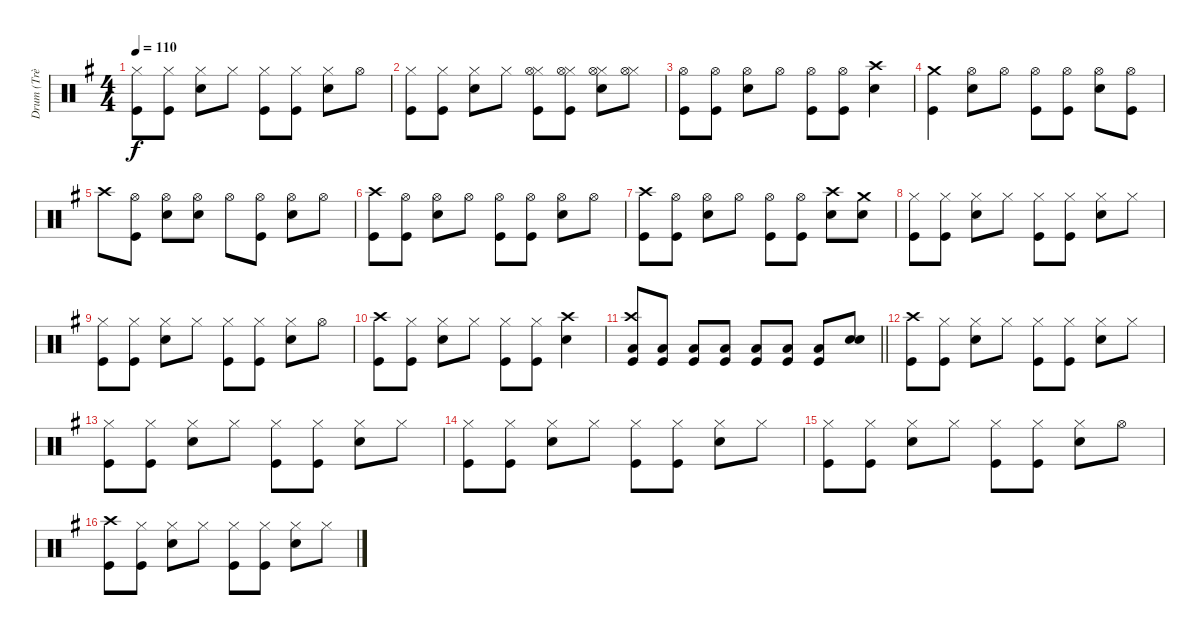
\track ("Drum (Trè Cool)" "Drum (Trè ") {instrument percussion}
\staff {score}
\articulation defaults
\ts (4 4)
\tempo 110
\clef neutral
\ks g
("Hi-Hat (closed)" "Kick (hit)").8{dy f} ("Hi-Hat (closed)" "Kick (hit)").8 ("Hi-Hat (closed)" "Snare (hit) 2").8 "Hi-Hat (closed)".8 ("Hi-Hat (closed)" "Kick (hit)").8 ("Hi-Hat (closed)" "Kick (hit)").8 ("Hi-Hat (closed)" "Snare (hit) 2").8 "Hi-Hat (open)".8 |
("Kick (hit)" "Hi-Hat (closed)").8 ("Hi-Hat (closed)" "Kick (hit)").8 ("Hi-Hat (closed)" "Snare (hit) 2").8 "Hi-Hat (closed)".8 ("Hi-Hat (closed)" "Kick (hit)" "Hi-Hat (open)").8 ("Hi-Hat (closed)" "Kick (hit)" "Hi-Hat (open)").8 ("Hi-Hat (closed)" "Snare (hit) 2" "Hi-Hat (open)").8 ("Hi-Hat (closed)" "Hi-Hat (open)").8 |
("Hi-Hat (open)" "Kick (hit)").8 ("Hi-Hat (open)" "Kick (hit)").8 ("Hi-Hat (open)" "Snare (hit) 2").8 "Hi-Hat (open)".8 ("Hi-Hat (open)" "Kick (hit)").8 ("Hi-Hat (open)" "Kick (hit)").8 ("Crash high (hit)" "Snare (hit) 2").4 |
("Crash medium (hit)" "Kick (hit)").4 ("Hi-Hat (open)" "Snare (hit) 2").8 "Hi-Hat (open)".8 ("Hi-Hat (open)" "Kick (hit)").8 ("Hi-Hat (open)" "Kick (hit)").8 ("Hi-Hat (open)" "Snare (hit) 2").8 ("Hi-Hat (open)" "Kick (hit)").8 |
"Crash high (hit)".8 ("Kick (hit)" "Hi-Hat (open)").8 ("Hi-Hat (open)" "Snare (hit) 2").8 ("Hi-Hat (open)" "Snare (hit) 2").8 "Hi-Hat (open)".8 ("Hi-Hat (open)" "Kick (hit)").8 ("Hi-Hat (open)" "Snare (hit) 2").8 "Hi-Hat (open)".8 |
("Crash high (hit)" "Kick (hit)").8 ("Hi-Hat (open)" "Kick (hit)").8 ("Hi-Hat (open)" "Snare (hit) 2").8 "Hi-Hat (open)".8 ("Hi-Hat (open)" "Kick (hit)").8 ("Hi-Hat (open)" "Kick (hit)").8 ("Hi-Hat (open)" "Snare (hit) 2").8 "Hi-Hat (open)".8 |
("Crash high (hit)" "Kick (hit)").8 ("Hi-Hat (open)" "Kick (hit)").8 ("Hi-Hat (open)" "Snare (hit) 2").8 "Hi-Hat (open)".8 ("Hi-Hat (open)" "Kick (hit)").8 ("Hi-Hat (open)" "Kick (hit)").8 ("Crash high (hit)" "Snare (hit) 2").8 ("Crash medium (hit)" "Snare (hit) 2").8 |
("Hi-Hat (closed)" "Kick (hit)").8 ("Kick (hit)" "Hi-Hat (closed)").8 ("Hi-Hat (closed)" "Snare (hit) 2").8 "Hi-Hat (closed)".8 ("Hi-Hat (closed)" "Kick (hit)").8 ("Hi-Hat (closed)" "Kick (hit)").8 ("Hi-Hat (closed)" "Snare (hit) 2").8 "Hi-Hat (closed)".8 |
("Hi-Hat (closed)" "Kick (hit)").8 ("Hi-Hat (closed)" "Kick (hit)").8 ("Hi-Hat (closed)" "Snare (hit) 2").8 "Hi-Hat (closed)".8 ("Hi-Hat (closed)" "Kick (hit)").8 ("Hi-Hat (closed)" "Kick (hit)").8 ("Hi-Hat (closed)" "Snare (hit) 2").8 "Hi-Hat (open)".8 |
("Crash high (hit)" "Kick (hit)").8 ("Kick (hit)" "Hi-Hat (closed)").8 ("Hi-Hat (closed)" "Snare (hit) 2").8 "Hi-Hat (closed)".8 ("Hi-Hat (closed)" "Kick (hit)").8 ("Hi-Hat (closed)" "Kick (hit)").8 ("Snare (hit) 2" "Crash high (hit)").4 |
\barLineRight lightlight
("Low Floor Tom (hit)" "Kick (hit)" "Crash high (hit)").8 ("Kick (hit)" "Low Floor Tom (hit)").8 ("Low Floor Tom (hit)" "Kick (hit)").8 ("Low Floor Tom (hit)" "Kick (hit)").8 ("Low Floor Tom (hit)" "Kick (hit)").8 ("Low Floor Tom (hit)" "Kick (hit)").8 ("Low Floor Tom (hit)" "Kick (hit)").8 ("Snare (hit) 2" "Snare (hit) 2").8 |
("Crash high (hit)" "Kick (hit)").8 ("Hi-Hat (closed)" "Kick (hit)").8 ("Snare (hit) 2" "Hi-Hat (closed)").8 "Hi-Hat (closed)".8 ("Hi-Hat (closed)" "Kick (hit)").8 ("Hi-Hat (closed)" "Kick (hit)").8 ("Hi-Hat (closed)" "Snare (hit) 2").8 "Hi-Hat (closed)".8 |
("Hi-Hat (closed)" "Kick (hit)").8 ("Hi-Hat (closed)" "Kick (hit)").8 ("Hi-Hat (closed)" "Snare (hit) 2").8 "Hi-Hat (closed)".8 ("Hi-Hat (closed)" "Kick (hit)").8 ("Hi-Hat (closed)" "Kick (hit)").8 ("Hi-Hat (closed)" "Snare (hit) 2").8 "Hi-Hat (closed)".8 |
("Hi-Hat (closed)" "Kick (hit)").8 ("Hi-Hat (closed)" "Kick (hit)").8 ("Hi-Hat (closed)" "Snare (hit) 2").8 "Hi-Hat (closed)".8 ("Hi-Hat (closed)" "Kick (hit)").8 ("Hi-Hat (closed)" "Kick (hit)").8 ("Hi-Hat (closed)" "Snare (hit) 2").8 "Hi-Hat (closed)".8 |
("Hi-Hat (closed)" "Kick (hit)").8 ("Hi-Hat (closed)" "Kick (hit)").8 ("Hi-Hat (closed)" "Snare (hit) 2").8 "Hi-Hat (closed)".8 ("Hi-Hat (closed)" "Kick (hit)").8 ("Hi-Hat (closed)" "Kick (hit)").8 ("Hi-Hat (closed)" "Snare (hit) 2").8 "Hi-Hat (open)".8 |
("Crash high (hit)" "Kick (hit)").8 ("Hi-Hat (closed)" "Kick (hit)").8 ("Snare (hit) 2" "Hi-Hat (closed)").8 "Hi-Hat (closed)".8 ("Hi-Hat (closed)" "Kick (hit)").8 ("Hi-Hat (closed)" "Kick (hit)").8 ("Hi-Hat (closed)" "Snare (hit) 2").8 "Hi-Hat (closed)".8
